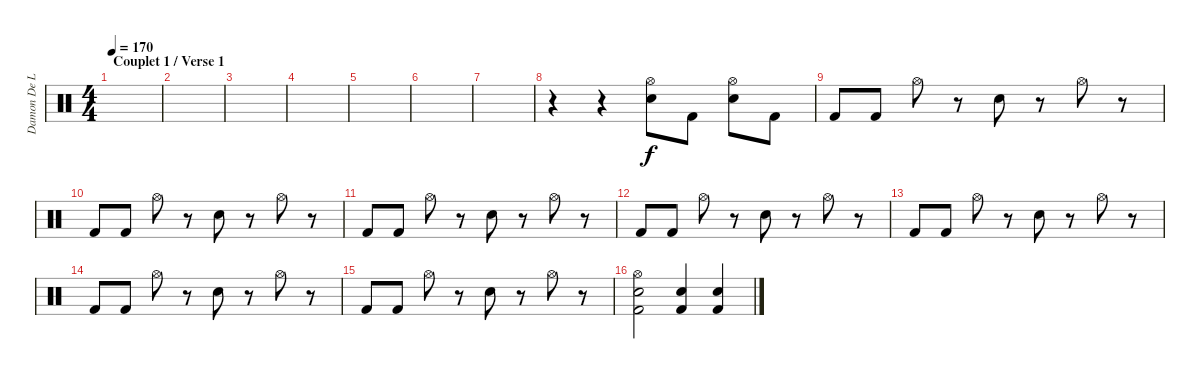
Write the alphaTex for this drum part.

\track ("Damon De La Paz" "Damon De L") {instrument percussion}
\staff {score}
\articulation defaults
\ts (4 4)
\section ("" "Couplet 1 / Verse 1")
\tempo 170
\clef neutral
\ks c
|
|
|
|
|
|
|
r.4 r.4 ("Hi-Hat (open)" "Electric Snare (hit)").8 "Kick (hit) 2".8 ("Hi-Hat (open)" "Electric Snare (hit)").8 "Kick (hit) 2".8 |
"Kick (hit) 2".8 "Kick (hit) 2".8 "Hi-Hat (open)".8 r.8 "Electric Snare (hit)".8 r.8 "Hi-Hat (open)".8 r.8 |
"Kick (hit) 2".8 "Kick (hit) 2".8 "Hi-Hat (open)".8 r.8 "Electric Snare (hit)".8 r.8 "Hi-Hat (open)".8 r.8 |
"Kick (hit) 2".8 "Kick (hit) 2".8 "Hi-Hat (open)".8 r.8 "Electric Snare (hit)".8 r.8 "Hi-Hat (open)".8 r.8 |
"Kick (hit) 2".8 "Kick (hit) 2".8 "Hi-Hat (open)".8 r.8 "Electric Snare (hit)".8 r.8 "Hi-Hat (open)".8 r.8 |
"Kick (hit) 2".8 "Kick (hit) 2".8 "Hi-Hat (open)".8 r.8 "Electric Snare (hit)".8 r.8 "Hi-Hat (open)".8 r.8 |
"Kick (hit) 2".8 "Kick (hit) 2".8 "Hi-Hat (open)".8 r.8 "Electric Snare (hit)".8 r.8 "Hi-Hat (open)".8 r.8 |
"Kick (hit) 2".8 "Kick (hit) 2".8 "Hi-Hat (open)".8 r.8 "Electric Snare (hit)".8 r.8 "Hi-Hat (open)".8 r.8 |
("Hi-Hat (open)" "Electric Snare (hit)" "Kick (hit) 2").2 ("Snare (hit) 2" "Kick (hit) 2").4 ("Snare (hit) 2" "Kick (hit) 2").4
